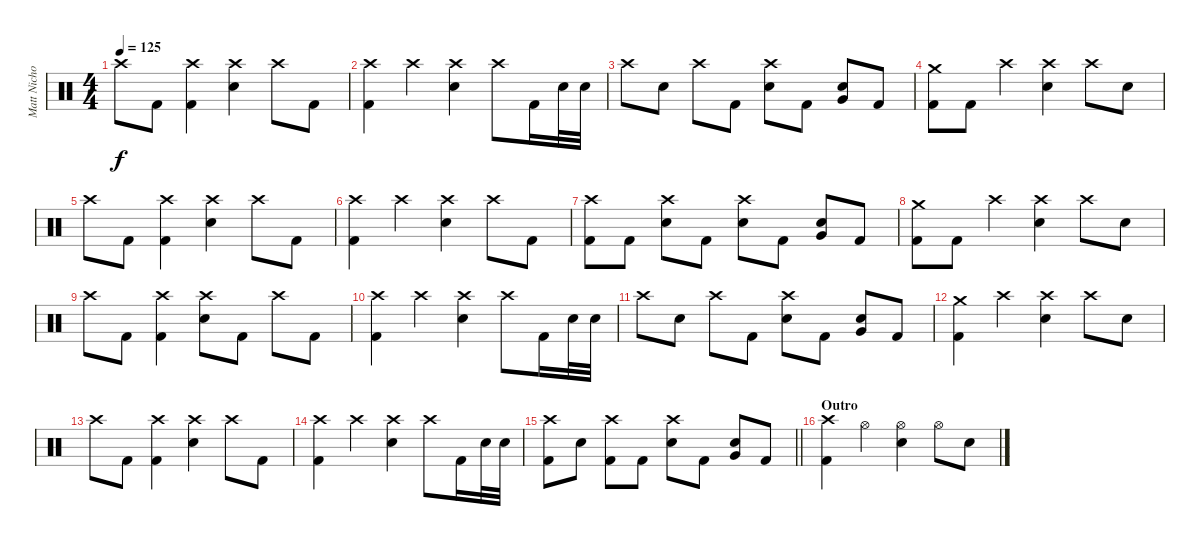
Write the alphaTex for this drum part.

\track ("Matt Nicholls" "Matt Nicho") {instrument percussion}
\staff {score}
\articulation defaults
\ts (4 4)
\tempo 125
\clef neutral
\ks c "Crash high (hit)".8{dy f} "Kick (hit) 2".8
("Crash high (hit)" "Kick (hit) 2").4 ("Crash high (hit)" "Electric Snare (hit)").4 "Crash high (hit)".8 "Kick (hit) 2".8 |
("Crash high (hit)" "Kick (hit) 2").4 "Crash high (hit)".4 ("Crash high (hit)" "Electric Snare (hit)").4 "Crash high (hit)".8 "Kick (hit) 2".16 "Electric Snare (hit)".32 "Electric Snare (hit)".32 |
"Crash high (hit)".8 "Electric Snare (hit)".8 "Crash high (hit)".8 "Kick (hit) 2".8 ("Crash high (hit)" "Electric Snare (hit)").8 "Kick (hit) 2".8 ("Electric Snare (hit)" "Very Low Tom (hit)").8 "Kick (hit) 2".8 |
("Crash medium (hit)" "Kick (hit) 2").8 "Kick (hit) 2".8 "Crash high (hit)".4 ("Crash high (hit)" "Electric Snare (hit)").4 "Crash high (hit)".8 "Electric Snare (hit)".8 |
"Crash high (hit)".8 "Kick (hit) 2".8 ("Crash high (hit)" "Kick (hit) 2").4 ("Crash high (hit)" "Electric Snare (hit)").4 "Crash high (hit)".8 "Kick (hit) 2".8 |
("Crash high (hit)" "Kick (hit) 2").4 "Crash high (hit)".4 ("Crash high (hit)" "Electric Snare (hit)").4 "Crash high (hit)".8 "Kick (hit) 2".8 |
("Crash high (hit)" "Kick (hit) 2").8 "Kick (hit) 2".8 ("Crash high (hit)" "Electric Snare (hit)").8 "Kick (hit) 2".8 ("Crash high (hit)" "Electric Snare (hit)").8 "Kick (hit) 2".8 ("Electric Snare (hit)" "Very Low Tom (hit)").8 "Kick (hit) 2".8 |
("Crash medium (hit)" "Kick (hit) 2").8 "Kick (hit) 2".8 "Crash high (hit)".4 ("Crash high (hit)" "Electric Snare (hit)").4 "Crash high (hit)".8 "Electric Snare (hit)".8 |
"Crash high (hit)".8 "Kick (hit) 2".8 ("Crash high (hit)" "Kick (hit) 2").4 ("Crash high (hit)" "Electric Snare (hit)").8 "Kick (hit) 2".8 "Crash high (hit)".8 "Kick (hit) 2".8 |
("Crash high (hit)" "Kick (hit) 2").4 "Crash high (hit)".4 ("Crash high (hit)" "Electric Snare (hit)").4 "Crash high (hit)".8 "Kick (hit) 2".16 "Electric Snare (hit)".32 "Electric Snare (hit)".32 |
"Crash high (hit)".8 "Electric Snare (hit)".8 "Crash high (hit)".8 "Kick (hit) 2".8 ("Crash high (hit)" "Electric Snare (hit)").8 "Kick (hit) 2".8 ("Electric Snare (hit)" "Very Low Tom (hit)").8 "Kick (hit) 2".8 |
("Crash medium (hit)" "Kick (hit) 2").4 "Crash high (hit)".4 ("Crash high (hit)" "Electric Snare (hit)").4 "Crash high (hit)".8 "Electric Snare (hit)".8 |
"Crash high (hit)".8 "Kick (hit) 2".8 ("Crash high (hit)" "Kick (hit) 2").4 ("Crash high (hit)" "Electric Snare (hit)").4 "Crash high (hit)".8 "Kick (hit) 2".8 |
("Crash high (hit)" "Kick (hit) 2").4 "Crash high (hit)".4 ("Crash high (hit)" "Electric Snare (hit)").4 "Crash high (hit)".8 "Kick (hit) 2".16 "Electric Snare (hit)".32 "Electric Snare (hit)".32 |
\barLineRight lightlight
("Crash high (hit)" "Kick (hit) 2").8 "Electric Snare (hit)".8 ("Crash high (hit)" "Kick (hit) 2").8 "Kick (hit) 2".8 ("Crash high (hit)" "Electric Snare (hit)").8 "Kick (hit) 2".8 ("Electric Snare (hit)" "Very Low Tom (hit)").8 "Kick (hit) 2".8 |
\section ("" "Outro")
("Crash high (hit)" "Kick (hit) 2").4{volume 16} "Hi-Hat (open)".4 ("Hi-Hat (open)" "Electric Snare (hit)").4 "Hi-Hat (open)".8 "Electric Snare (hit)".8
